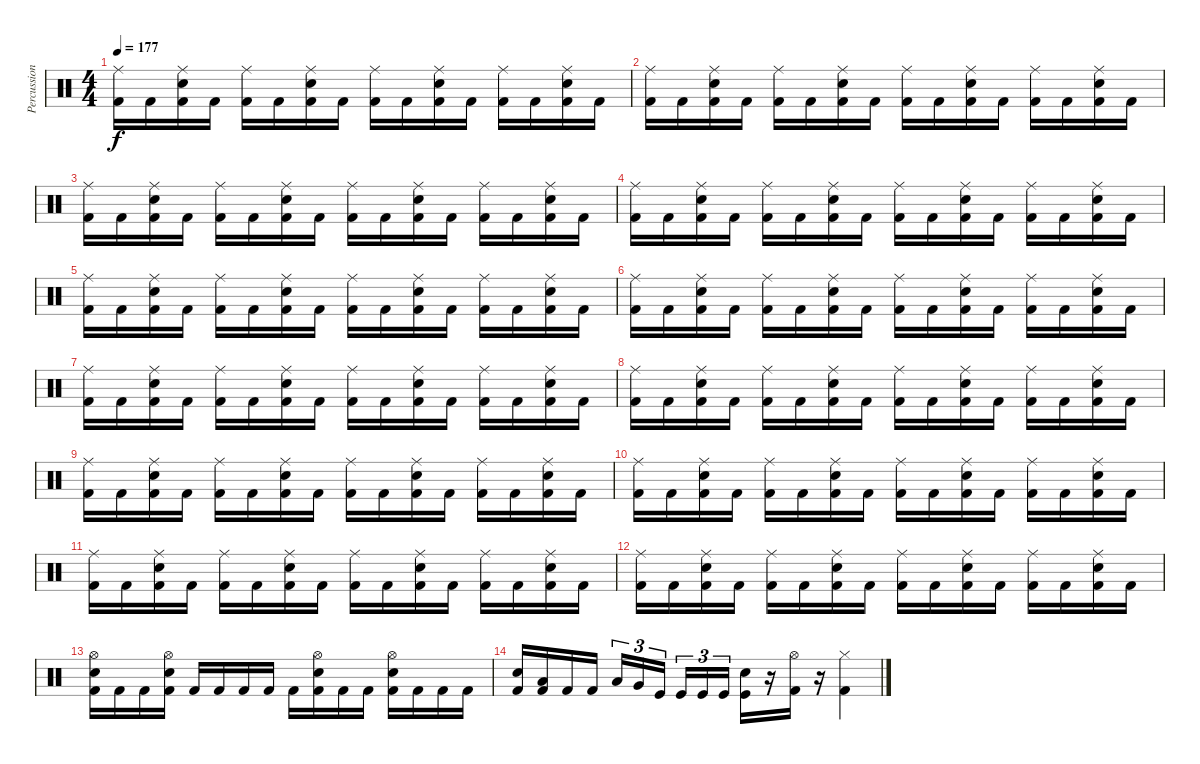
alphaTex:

\track ("Percussion" "Percussion") {instrument percussion}
\staff {score}
\articulation defaults
\ts (4 4)
\tempo 177
\clef neutral
\ks c
("Ride (middle)" "Kick (hit) 2").16{dy f} "Kick (hit) 2".16 ("Ride (middle)" "Snare (hit) 2" "Kick (hit) 2").16 "Kick (hit) 2".16 ("Ride (middle)" "Kick (hit) 2").16 "Kick (hit) 2".16 ("Ride (middle)" "Snare (hit) 2" "Kick (hit) 2").16 "Kick (hit) 2".16 ("Ride (middle)" "Kick (hit) 2").16 "Kick (hit) 2".16 ("Ride (middle)" "Snare (hit) 2" "Kick (hit) 2").16 "Kick (hit) 2".16 ("Ride (middle)" "Kick (hit) 2").16 "Kick (hit) 2".16 ("Ride (middle)" "Snare (hit) 2" "Kick (hit) 2").16 "Kick (hit) 2".16 |
("Ride (middle)" "Kick (hit) 2").16 "Kick (hit) 2".16 ("Ride (middle)" "Snare (hit) 2" "Kick (hit) 2").16 "Kick (hit) 2".16 ("Ride (middle)" "Kick (hit) 2").16 "Kick (hit) 2".16 ("Ride (middle)" "Snare (hit) 2" "Kick (hit) 2").16 "Kick (hit) 2".16 ("Ride (middle)" "Kick (hit) 2").16 "Kick (hit) 2".16 ("Ride (middle)" "Snare (hit) 2" "Kick (hit) 2").16 "Kick (hit) 2".16 ("Ride (middle)" "Kick (hit) 2").16 "Kick (hit) 2".16 ("Ride (middle)" "Snare (hit) 2" "Kick (hit) 2").16 "Kick (hit) 2".16 |
("Ride (middle)" "Kick (hit) 2").16 "Kick (hit) 2".16 ("Ride (middle)" "Snare (hit) 2" "Kick (hit) 2").16 "Kick (hit) 2".16 ("Ride (middle)" "Kick (hit) 2").16 "Kick (hit) 2".16 ("Ride (middle)" "Snare (hit) 2" "Kick (hit) 2").16 "Kick (hit) 2".16 ("Ride (middle)" "Kick (hit) 2").16 "Kick (hit) 2".16 ("Ride (middle)" "Snare (hit) 2" "Kick (hit) 2").16 "Kick (hit) 2".16 ("Ride (middle)" "Kick (hit) 2").16 "Kick (hit) 2".16 ("Ride (middle)" "Snare (hit) 2" "Kick (hit) 2").16 "Kick (hit) 2".16 |
("Ride (middle)" "Kick (hit) 2").16 "Kick (hit) 2".16 ("Ride (middle)" "Snare (hit) 2" "Kick (hit) 2").16 "Kick (hit) 2".16 ("Ride (middle)" "Kick (hit) 2").16 "Kick (hit) 2".16 ("Ride (middle)" "Snare (hit) 2" "Kick (hit) 2").16 "Kick (hit) 2".16 ("Ride (middle)" "Kick (hit) 2").16 "Kick (hit) 2".16 ("Ride (middle)" "Snare (hit) 2" "Kick (hit) 2").16 "Kick (hit) 2".16 ("Ride (middle)" "Kick (hit) 2").16 "Kick (hit) 2".16 ("Ride (middle)" "Snare (hit) 2" "Kick (hit) 2").16 "Kick (hit) 2".16 |
("Ride (middle)" "Kick (hit) 2").16 "Kick (hit) 2".16 ("Ride (middle)" "Snare (hit) 2" "Kick (hit) 2").16 "Kick (hit) 2".16 ("Ride (middle)" "Kick (hit) 2").16 "Kick (hit) 2".16 ("Ride (middle)" "Snare (hit) 2" "Kick (hit) 2").16 "Kick (hit) 2".16 ("Ride (middle)" "Kick (hit) 2").16 "Kick (hit) 2".16 ("Ride (middle)" "Snare (hit) 2" "Kick (hit) 2").16 "Kick (hit) 2".16 ("Ride (middle)" "Kick (hit) 2").16 "Kick (hit) 2".16 ("Ride (middle)" "Snare (hit) 2" "Kick (hit) 2").16 "Kick (hit) 2".16 |
("Ride (middle)" "Kick (hit) 2").16 "Kick (hit) 2".16 ("Ride (middle)" "Snare (hit) 2" "Kick (hit) 2").16 "Kick (hit) 2".16 ("Ride (middle)" "Kick (hit) 2").16 "Kick (hit) 2".16 ("Ride (middle)" "Snare (hit) 2" "Kick (hit) 2").16 "Kick (hit) 2".16 ("Ride (middle)" "Kick (hit) 2").16 "Kick (hit) 2".16 ("Ride (middle)" "Snare (hit) 2" "Kick (hit) 2").16 "Kick (hit) 2".16 ("Ride (middle)" "Kick (hit) 2").16 "Kick (hit) 2".16 ("Ride (middle)" "Snare (hit) 2" "Kick (hit) 2").16 "Kick (hit) 2".16 |
("Ride (middle)" "Kick (hit) 2").16 "Kick (hit) 2".16 ("Ride (middle)" "Snare (hit) 2" "Kick (hit) 2").16 "Kick (hit) 2".16 ("Ride (middle)" "Kick (hit) 2").16 "Kick (hit) 2".16 ("Ride (middle)" "Snare (hit) 2" "Kick (hit) 2").16 "Kick (hit) 2".16 ("Ride (middle)" "Kick (hit) 2").16 "Kick (hit) 2".16 ("Ride (middle)" "Snare (hit) 2" "Kick (hit) 2").16 "Kick (hit) 2".16 ("Ride (middle)" "Kick (hit) 2").16 "Kick (hit) 2".16 ("Ride (middle)" "Snare (hit) 2" "Kick (hit) 2").16 "Kick (hit) 2".16 |
("Ride (middle)" "Kick (hit) 2").16 "Kick (hit) 2".16 ("Ride (middle)" "Snare (hit) 2" "Kick (hit) 2").16 "Kick (hit) 2".16 ("Ride (middle)" "Kick (hit) 2").16 "Kick (hit) 2".16 ("Ride (middle)" "Snare (hit) 2" "Kick (hit) 2").16 "Kick (hit) 2".16 ("Ride (middle)" "Kick (hit) 2").16 "Kick (hit) 2".16 ("Ride (middle)" "Snare (hit) 2" "Kick (hit) 2").16 "Kick (hit) 2".16 ("Ride (middle)" "Kick (hit) 2").16 "Kick (hit) 2".16 ("Ride (middle)" "Snare (hit) 2" "Kick (hit) 2").16 "Kick (hit) 2".16 |
("Ride (middle)" "Kick (hit) 2").16 "Kick (hit) 2".16 ("Ride (middle)" "Snare (hit) 2" "Kick (hit) 2").16 "Kick (hit) 2".16 ("Ride (middle)" "Kick (hit) 2").16 "Kick (hit) 2".16 ("Ride (middle)" "Snare (hit) 2" "Kick (hit) 2").16 "Kick (hit) 2".16 ("Ride (middle)" "Kick (hit) 2").16 "Kick (hit) 2".16 ("Ride (middle)" "Snare (hit) 2" "Kick (hit) 2").16 "Kick (hit) 2".16 ("Ride (middle)" "Kick (hit) 2").16 "Kick (hit) 2".16 ("Ride (middle)" "Snare (hit) 2" "Kick (hit) 2").16 "Kick (hit) 2".16 |
("Ride (middle)" "Kick (hit) 2").16 "Kick (hit) 2".16 ("Ride (middle)" "Snare (hit) 2" "Kick (hit) 2").16 "Kick (hit) 2".16 ("Ride (middle)" "Kick (hit) 2").16 "Kick (hit) 2".16 ("Ride (middle)" "Snare (hit) 2" "Kick (hit) 2").16 "Kick (hit) 2".16 ("Ride (middle)" "Kick (hit) 2").16 "Kick (hit) 2".16 ("Ride (middle)" "Snare (hit) 2" "Kick (hit) 2").16 "Kick (hit) 2".16 ("Ride (middle)" "Kick (hit) 2").16 "Kick (hit) 2".16 ("Ride (middle)" "Snare (hit) 2" "Kick (hit) 2").16 "Kick (hit) 2".16 |
("Ride (middle)" "Kick (hit) 2").16 "Kick (hit) 2".16 ("Ride (middle)" "Snare (hit) 2" "Kick (hit) 2").16 "Kick (hit) 2".16 ("Ride (middle)" "Kick (hit) 2").16 "Kick (hit) 2".16 ("Ride (middle)" "Snare (hit) 2" "Kick (hit) 2").16 "Kick (hit) 2".16 ("Ride (middle)" "Kick (hit) 2").16 "Kick (hit) 2".16 ("Ride (middle)" "Snare (hit) 2" "Kick (hit) 2").16 "Kick (hit) 2".16 ("Ride (middle)" "Kick (hit) 2").16 "Kick (hit) 2".16 ("Ride (middle)" "Snare (hit) 2" "Kick (hit) 2").16 "Kick (hit) 2".16 |
("Ride (middle)" "Kick (hit) 2").16 "Kick (hit) 2".16 ("Ride (middle)" "Snare (hit) 2" "Kick (hit) 2").16 "Kick (hit) 2".16 ("Ride (middle)" "Kick (hit) 2").16 "Kick (hit) 2".16 ("Ride (middle)" "Snare (hit) 2" "Kick (hit) 2").16 "Kick (hit) 2".16 ("Ride (middle)" "Kick (hit) 2").16 "Kick (hit) 2".16 ("Ride (middle)" "Snare (hit) 2" "Kick (hit) 2").16 "Kick (hit) 2".16 ("Ride (middle)" "Kick (hit) 2").16 "Kick (hit) 2".16 ("Ride (middle)" "Snare (hit) 2" "Kick (hit) 2").16 "Kick (hit) 2".16 |
("Hi-Hat (open)" "Snare (hit) 2" "Kick (hit) 2").16 "Kick (hit) 2".16 "Kick (hit) 2".16 ("Hi-Hat (open)" "Snare (hit) 2" "Kick (hit) 2").16 "Kick (hit) 2".16 "Kick (hit) 2".16 "Kick (hit) 2".16 "Kick (hit) 2".16 "Kick (hit) 2".16 ("Hi-Hat (open)" "Snare (hit) 2" "Kick (hit) 2").16 "Kick (hit) 2".16 "Kick (hit) 2".16 ("Hi-Hat (open)" "Snare (hit) 2" "Kick (hit) 2").16 "Kick (hit) 2".16 "Kick (hit) 2".16 "Kick (hit) 2".16 |
("Snare (hit) 2" "Kick (hit) 2").16 ("Low Tom (hit)" "Kick (hit) 2").16 "Kick (hit) 2".16 "Kick (hit) 2".16 "Low Tom (hit)".16{tu (3 2)} "Very Low Tom (hit)".16{tu (3 2)} "Kick (hit)".16{tu (3 2) beam splitsecondary} "Kick (hit)".16{tu (3 2)} "Kick (hit)".16{tu (3 2)} "Kick (hit)".16{tu (3 2)} ("Snare (hit) 2" "Kick (hit)").16 r.16 ("Hi-Hat (open)" "Kick (hit) 2").16 r.16 ("Hi-Hat (closed)" "Kick (hit) 2").4
